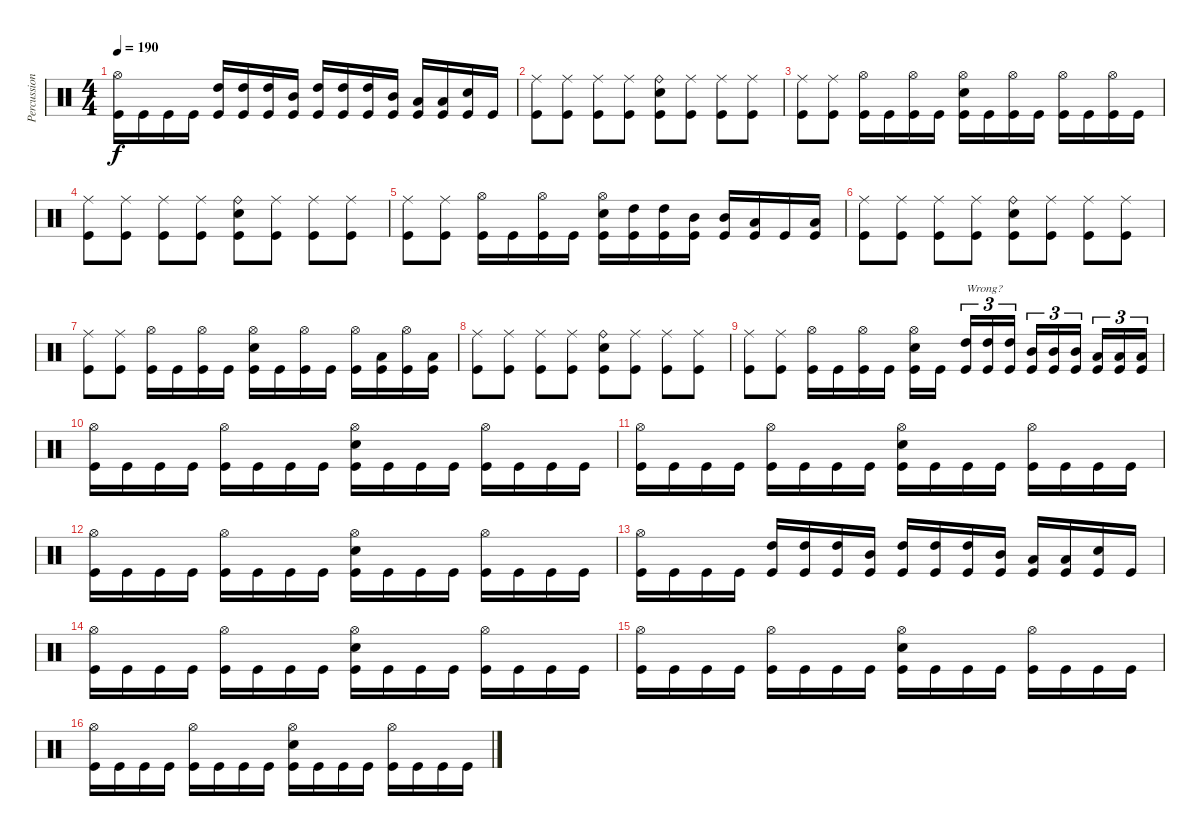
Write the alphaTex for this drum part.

\track ("Percussioni" "Percussion") {instrument percussion}
\staff {score}
\articulation defaults
\ts (4 4)
\tempo 190
\clef neutral
\ks c
("Hi-Hat (open)" "Kick (hit)").16{dy f} "Kick (hit)".16 "Kick (hit)".16 "Kick (hit)".16 ("High Tom (hit)" "Kick (hit)").16 ("High Tom (hit)" "Kick (hit)").16 ("High Tom (hit)" "Kick (hit)").16 ("Mid Tom (hit)" "Kick (hit)").16 ("High Tom (hit)" "Kick (hit)").16 ("High Tom (hit)" "Kick (hit)").16 ("High Tom (hit)" "Kick (hit)").16 ("Mid Tom (hit)" "Kick (hit)").16 ("Low Tom (hit)" "Kick (hit)").16 ("Low Tom (hit)" "Kick (hit)").16 ("Electric Snare (hit)" "Kick (hit)").16 "Kick (hit)".16 |
("Ride (middle)" "Kick (hit)").8 ("Ride (middle)" "Kick (hit)").8 ("Ride (middle)" "Kick (hit)").8 ("Ride (middle)" "Kick (hit)").8 ("Ride (bell)" "Electric Snare (hit)" "Kick (hit)").8 ("Ride (middle)" "Kick (hit)").8 ("Ride (middle)" "Kick (hit)").8 ("Ride (middle)" "Kick (hit)").8 |
("Ride (middle)" "Kick (hit)").8 ("Ride (middle)" "Kick (hit)").8 ("Hi-Hat (open)" "Kick (hit)").16 "Kick (hit)".16 ("Hi-Hat (open)" "Kick (hit)").16 "Kick (hit)".16 ("Hi-Hat (open)" "Electric Snare (hit)" "Kick (hit)").16 "Kick (hit)".16 ("Hi-Hat (open)" "Kick (hit)").16 "Kick (hit)".16 ("Hi-Hat (open)" "Kick (hit)").16 "Kick (hit)".16 ("Hi-Hat (open)" "Kick (hit)").16 "Kick (hit)".16 |
("Ride (middle)" "Kick (hit)").8 ("Ride (middle)" "Kick (hit)").8 ("Ride (middle)" "Kick (hit)").8 ("Ride (middle)" "Kick (hit)").8 ("Ride (bell)" "Electric Snare (hit)" "Kick (hit)").8 ("Ride (middle)" "Kick (hit)").8 ("Ride (middle)" "Kick (hit)").8 ("Ride (middle)" "Kick (hit)").8 |
("Ride (middle)" "Kick (hit)").8 ("Ride (middle)" "Kick (hit)").8 ("Hi-Hat (open)" "Kick (hit)").16 "Kick (hit)".16 ("Hi-Hat (open)" "Kick (hit)").16 "Kick (hit)".16 ("Hi-Hat (open)" "Electric Snare (hit)" "Kick (hit)").16 ("High Tom (hit)" "Kick (hit)").16 ("High Tom (hit)" "Kick (hit)").16 ("Mid Tom (hit)" "Kick (hit)").16 ("Mid Tom (hit)" "Kick (hit)").16 ("Low Tom (hit)" "Kick (hit)").16 "Kick (hit)".16 ("Low Tom (hit)" "Kick (hit)").16 |
("Ride (middle)" "Kick (hit)").8 ("Ride (middle)" "Kick (hit)").8 ("Ride (middle)" "Kick (hit)").8 ("Ride (middle)" "Kick (hit)").8 ("Ride (bell)" "Electric Snare (hit)" "Kick (hit)").8 ("Ride (middle)" "Kick (hit)").8 ("Ride (middle)" "Kick (hit)").8 ("Ride (middle)" "Kick (hit)").8 |
("Ride (middle)" "Kick (hit)").8 ("Ride (middle)" "Kick (hit)").8 ("Hi-Hat (open)" "Kick (hit)").16 "Kick (hit)".16 ("Hi-Hat (open)" "Kick (hit)").16 "Kick (hit)".16 ("Hi-Hat (open)" "Electric Snare (hit)" "Kick (hit)").16 "Kick (hit)".16 ("Hi-Hat (open)" "Kick (hit)").16 "Kick (hit)".16 ("Hi-Hat (open)" "Kick (hit)").16 ("Low Tom (hit)" "Kick (hit)").16 ("Hi-Hat (open)" "Kick (hit)").16 ("Low Tom (hit)" "Kick (hit)").16 |
("Ride (middle)" "Kick (hit)").8 ("Ride (middle)" "Kick (hit)").8 ("Ride (middle)" "Kick (hit)").8 ("Ride (middle)" "Kick (hit)").8 ("Ride (bell)" "Electric Snare (hit)" "Kick (hit)").8 ("Ride (middle)" "Kick (hit)").8 ("Ride (middle)" "Kick (hit)").8 ("Ride (middle)" "Kick (hit)").8 |
("Ride (middle)" "Kick (hit)").8 ("Ride (middle)" "Kick (hit)").8 ("Hi-Hat (open)" "Kick (hit)").16 "Kick (hit)".16 ("Hi-Hat (open)" "Kick (hit)").16 "Kick (hit)".16 ("Hi-Hat (open)" "Electric Snare (hit)" "Kick (hit)").16 "Kick (hit)".16 ("High Tom (hit)" "Kick (hit)").16{tu (3 2) txt "Wrong?"} ("High Tom (hit)" "Kick (hit)").16{tu (3 2)} ("High Tom (hit)" "Kick (hit)").16{tu (3 2)} ("Mid Tom (hit)" "Kick (hit)").16{tu (3 2)} ("Mid Tom (hit)" "Kick (hit)").16{tu (3 2)} ("Mid Tom (hit)" "Kick (hit)").16{tu (3 2)} ("Low Tom (hit)" "Kick (hit)").16{tu (3 2)} ("Low Tom (hit)" "Kick (hit)").16{tu (3 2)} ("Low Tom (hit)" "Kick (hit)").16{tu (3 2)} |
("Hi-Hat (open)" "Kick (hit)").16 "Kick (hit)".16 "Kick (hit)".16 "Kick (hit)".16 ("Hi-Hat (open)" "Kick (hit)").16 "Kick (hit)".16 "Kick (hit)".16 "Kick (hit)".16 ("Hi-Hat (open)" "Electric Snare (hit)" "Kick (hit)").16 "Kick (hit)".16 "Kick (hit)".16 "Kick (hit)".16 ("Hi-Hat (open)" "Kick (hit)").16 "Kick (hit)".16 "Kick (hit)".16 "Kick (hit)".16 |
("Hi-Hat (open)" "Kick (hit)").16 "Kick (hit)".16 "Kick (hit)".16 "Kick (hit)".16 ("Hi-Hat (open)" "Kick (hit)").16 "Kick (hit)".16 "Kick (hit)".16 "Kick (hit)".16 ("Hi-Hat (open)" "Electric Snare (hit)" "Kick (hit)").16 "Kick (hit)".16 "Kick (hit)".16 "Kick (hit)".16 ("Hi-Hat (open)" "Kick (hit)").16 "Kick (hit)".16 "Kick (hit)".16 "Kick (hit)".16 |
("Hi-Hat (open)" "Kick (hit)").16 "Kick (hit)".16 "Kick (hit)".16 "Kick (hit)".16 ("Hi-Hat (open)" "Kick (hit)").16 "Kick (hit)".16 "Kick (hit)".16 "Kick (hit)".16 ("Hi-Hat (open)" "Electric Snare (hit)" "Kick (hit)").16 "Kick (hit)".16 "Kick (hit)".16 "Kick (hit)".16 ("Hi-Hat (open)" "Kick (hit)").16 "Kick (hit)".16 "Kick (hit)".16 "Kick (hit)".16 |
("Hi-Hat (open)" "Kick (hit)").16 "Kick (hit)".16 "Kick (hit)".16 "Kick (hit)".16 ("High Tom (hit)" "Kick (hit)").16 ("High Tom (hit)" "Kick (hit)").16 ("High Tom (hit)" "Kick (hit)").16 ("Mid Tom (hit)" "Kick (hit)").16 ("High Tom (hit)" "Kick (hit)").16 ("High Tom (hit)" "Kick (hit)").16 ("High Tom (hit)" "Kick (hit)").16 ("Mid Tom (hit)" "Kick (hit)").16 ("Low Tom (hit)" "Kick (hit)").16 ("Low Tom (hit)" "Kick (hit)").16 ("Electric Snare (hit)" "Kick (hit)").16 "Kick (hit)".16 |
("Hi-Hat (open)" "Kick (hit)").16 "Kick (hit)".16 "Kick (hit)".16 "Kick (hit)".16 ("Hi-Hat (open)" "Kick (hit)").16 "Kick (hit)".16 "Kick (hit)".16 "Kick (hit)".16 ("Hi-Hat (open)" "Electric Snare (hit)" "Kick (hit)").16 "Kick (hit)".16 "Kick (hit)".16 "Kick (hit)".16 ("Hi-Hat (open)" "Kick (hit)").16 "Kick (hit)".16 "Kick (hit)".16 "Kick (hit)".16 |
("Hi-Hat (open)" "Kick (hit)").16 "Kick (hit)".16 "Kick (hit)".16 "Kick (hit)".16 ("Hi-Hat (open)" "Kick (hit)").16 "Kick (hit)".16 "Kick (hit)".16 "Kick (hit)".16 ("Hi-Hat (open)" "Electric Snare (hit)" "Kick (hit)").16 "Kick (hit)".16 "Kick (hit)".16 "Kick (hit)".16 ("Hi-Hat (open)" "Kick (hit)").16 "Kick (hit)".16 "Kick (hit)".16 "Kick (hit)".16 |
("Hi-Hat (open)" "Kick (hit)").16 "Kick (hit)".16 "Kick (hit)".16 "Kick (hit)".16 ("Hi-Hat (open)" "Kick (hit)").16 "Kick (hit)".16 "Kick (hit)".16 "Kick (hit)".16 ("Hi-Hat (open)" "Electric Snare (hit)" "Kick (hit)").16 "Kick (hit)".16 "Kick (hit)".16 "Kick (hit)".16 ("Hi-Hat (open)" "Kick (hit)").16 "Kick (hit)".16 "Kick (hit)".16 "Kick (hit)".16
